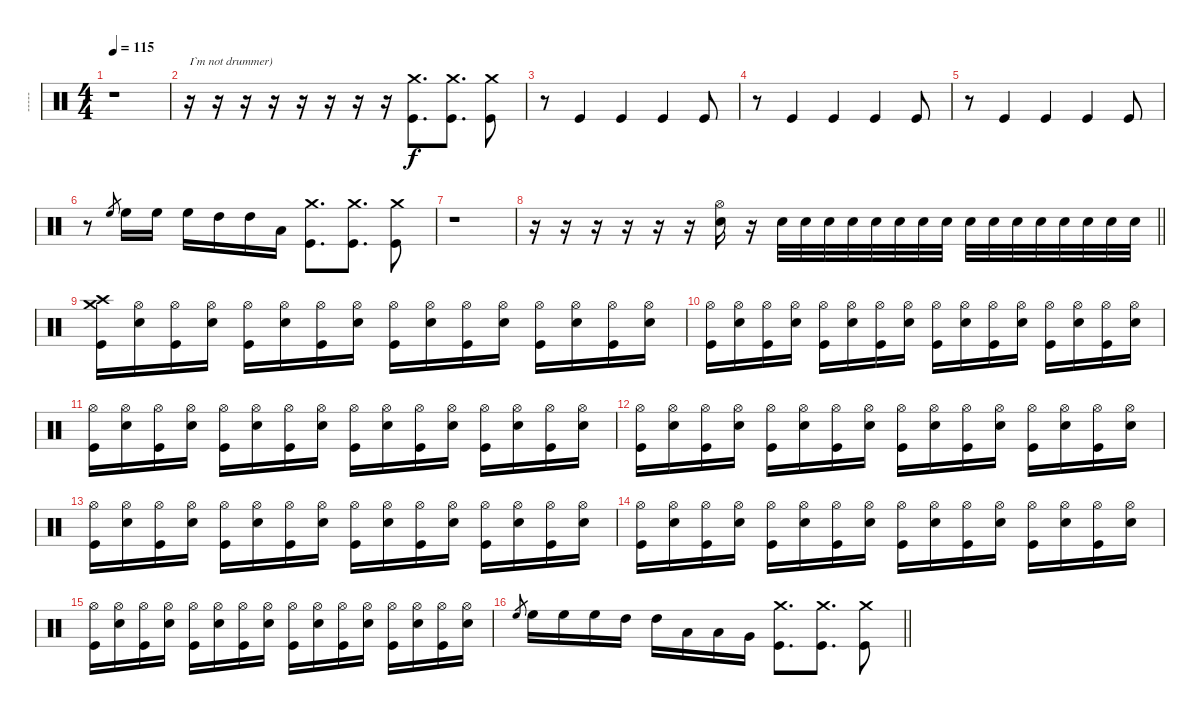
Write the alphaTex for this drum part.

\track ("-----" "-----") {instrument percussion}
\staff {score}
\articulation defaults
\ts (4 4)
\tempo 115
\clef neutral
\ks c
r.1{dy f} |
r.16{txt "I`m not drummer)"} r.16 r.16 r.16 r.16 r.16 r.16 r.16 ("Crash medium (hit)" "Kick (hit)").8{d} ("Crash medium (hit)" "Kick (hit)").8{d} ("Crash medium (hit)" "Kick (hit)").8 |
r.8 "Kick (hit)".4 "Kick (hit)".4 "Kick (hit)".4 "Kick (hit)".8 |
r.8 "Kick (hit)".4 "Kick (hit)".4 "Kick (hit)".4 "Kick (hit)".8 |
r.8 "Kick (hit)".4 "Kick (hit)".4 "Kick (hit)".4 "Kick (hit)".8 |
r.8 "High Floor Tom (hit)".8{gr} "High Floor Tom (hit)".16 "High Floor Tom (hit)".16 "High Floor Tom (hit)".16 "High Tom (hit)".16 "High Tom (hit)".16 "Low Tom (hit)".16 ("Crash medium (hit)" "Kick (hit)").8{d} ("Crash medium (hit)" "Kick (hit)").8{d} ("Crash medium (hit)" "Kick (hit)").8 |
r.1 |
\barLineRight lightlight
r.16 r.16 r.16 r.16 r.16 r.16 ("Hi-Hat (open)" "Electric Snare (hit)").16 r.16 "Electric Snare (hit)".32 "Electric Snare (hit)".32 "Electric Snare (hit)".32 "Electric Snare (hit)".32 "Electric Snare (hit)".32 "Electric Snare (hit)".32 "Electric Snare (hit)".32 "Electric Snare (hit)".32 "Electric Snare (hit)".32 "Electric Snare (hit)".32 "Electric Snare (hit)".32 "Electric Snare (hit)".32 "Electric Snare (hit)".32 "Electric Snare (hit)".32 "Electric Snare (hit)".32 "Electric Snare (hit)".32 |
\section ("" "")
("Crash medium (hit)" "Crash high (hit)" "Kick (hit)").16 ("Hi-Hat (open)" "Electric Snare (hit)").16 ("Hi-Hat (open)" "Kick (hit)").16 ("Hi-Hat (open)" "Electric Snare (hit)").16 ("Hi-Hat (open)" "Kick (hit)").16 ("Hi-Hat (open)" "Electric Snare (hit)").16 ("Hi-Hat (open)" "Kick (hit)").16 ("Hi-Hat (open)" "Electric Snare (hit)").16 ("Hi-Hat (open)" "Kick (hit)").16 ("Hi-Hat (open)" "Electric Snare (hit)").16 ("Hi-Hat (open)" "Kick (hit)").16 ("Hi-Hat (open)" "Electric Snare (hit)").16 ("Hi-Hat (open)" "Kick (hit)").16 ("Hi-Hat (open)" "Electric Snare (hit)").16 ("Hi-Hat (open)" "Kick (hit)").16 ("Hi-Hat (open)" "Electric Snare (hit)").16 |
("Hi-Hat (open)" "Kick (hit)").16 ("Hi-Hat (open)" "Electric Snare (hit)").16 ("Hi-Hat (open)" "Kick (hit)").16 ("Hi-Hat (open)" "Electric Snare (hit)").16 ("Hi-Hat (open)" "Kick (hit)").16 ("Hi-Hat (open)" "Electric Snare (hit)").16 ("Hi-Hat (open)" "Kick (hit)").16 ("Hi-Hat (open)" "Electric Snare (hit)").16 ("Hi-Hat (open)" "Kick (hit)").16 ("Hi-Hat (open)" "Electric Snare (hit)").16 ("Hi-Hat (open)" "Kick (hit)").16 ("Hi-Hat (open)" "Electric Snare (hit)").16 ("Hi-Hat (open)" "Kick (hit)").16 ("Hi-Hat (open)" "Electric Snare (hit)").16 ("Hi-Hat (open)" "Kick (hit)").16 ("Hi-Hat (open)" "Electric Snare (hit)").16 |
("Hi-Hat (open)" "Kick (hit)").16 ("Hi-Hat (open)" "Electric Snare (hit)").16 ("Hi-Hat (open)" "Kick (hit)").16 ("Hi-Hat (open)" "Electric Snare (hit)").16 ("Hi-Hat (open)" "Kick (hit)").16 ("Hi-Hat (open)" "Electric Snare (hit)").16 ("Hi-Hat (open)" "Kick (hit)").16 ("Hi-Hat (open)" "Electric Snare (hit)").16 ("Hi-Hat (open)" "Kick (hit)").16 ("Hi-Hat (open)" "Electric Snare (hit)").16 ("Hi-Hat (open)" "Kick (hit)").16 ("Hi-Hat (open)" "Electric Snare (hit)").16 ("Hi-Hat (open)" "Kick (hit)").16 ("Hi-Hat (open)" "Electric Snare (hit)").16 ("Hi-Hat (open)" "Kick (hit)").16 ("Hi-Hat (open)" "Electric Snare (hit)").16 |
("Hi-Hat (open)" "Kick (hit)").16 ("Hi-Hat (open)" "Electric Snare (hit)").16 ("Hi-Hat (open)" "Kick (hit)").16 ("Hi-Hat (open)" "Electric Snare (hit)").16 ("Hi-Hat (open)" "Kick (hit)").16 ("Hi-Hat (open)" "Electric Snare (hit)").16 ("Hi-Hat (open)" "Kick (hit)").16 ("Hi-Hat (open)" "Electric Snare (hit)").16 ("Hi-Hat (open)" "Kick (hit)").16 ("Hi-Hat (open)" "Electric Snare (hit)").16 ("Hi-Hat (open)" "Kick (hit)").16 ("Hi-Hat (open)" "Electric Snare (hit)").16 ("Hi-Hat (open)" "Kick (hit)").16 ("Hi-Hat (open)" "Electric Snare (hit)").16 ("Hi-Hat (open)" "Kick (hit)").16 ("Hi-Hat (open)" "Electric Snare (hit)").16 |
("Hi-Hat (open)" "Kick (hit)").16 ("Hi-Hat (open)" "Electric Snare (hit)").16 ("Hi-Hat (open)" "Kick (hit)").16 ("Hi-Hat (open)" "Electric Snare (hit)").16 ("Hi-Hat (open)" "Kick (hit)").16 ("Hi-Hat (open)" "Electric Snare (hit)").16 ("Hi-Hat (open)" "Kick (hit)").16 ("Hi-Hat (open)" "Electric Snare (hit)").16 ("Hi-Hat (open)" "Kick (hit)").16 ("Hi-Hat (open)" "Electric Snare (hit)").16 ("Hi-Hat (open)" "Kick (hit)").16 ("Hi-Hat (open)" "Electric Snare (hit)").16 ("Hi-Hat (open)" "Kick (hit)").16 ("Hi-Hat (open)" "Electric Snare (hit)").16 ("Hi-Hat (open)" "Kick (hit)").16 ("Hi-Hat (open)" "Electric Snare (hit)").16 |
("Hi-Hat (open)" "Kick (hit)").16 ("Hi-Hat (open)" "Electric Snare (hit)").16 ("Hi-Hat (open)" "Kick (hit)").16 ("Hi-Hat (open)" "Electric Snare (hit)").16 ("Hi-Hat (open)" "Kick (hit)").16 ("Hi-Hat (open)" "Electric Snare (hit)").16 ("Hi-Hat (open)" "Kick (hit)").16 ("Hi-Hat (open)" "Electric Snare (hit)").16 ("Hi-Hat (open)" "Kick (hit)").16 ("Hi-Hat (open)" "Electric Snare (hit)").16 ("Hi-Hat (open)" "Kick (hit)").16 ("Hi-Hat (open)" "Electric Snare (hit)").16 ("Hi-Hat (open)" "Kick (hit)").16 ("Hi-Hat (open)" "Electric Snare (hit)").16 ("Hi-Hat (open)" "Kick (hit)").16 ("Hi-Hat (open)" "Electric Snare (hit)").16 |
("Hi-Hat (open)" "Kick (hit)").16 ("Hi-Hat (open)" "Electric Snare (hit)").16 ("Hi-Hat (open)" "Kick (hit)").16 ("Hi-Hat (open)" "Electric Snare (hit)").16 ("Hi-Hat (open)" "Kick (hit)").16 ("Hi-Hat (open)" "Electric Snare (hit)").16 ("Hi-Hat (open)" "Kick (hit)").16 ("Hi-Hat (open)" "Electric Snare (hit)").16 ("Hi-Hat (open)" "Kick (hit)").16 ("Hi-Hat (open)" "Electric Snare (hit)").16 ("Hi-Hat (open)" "Kick (hit)").16 ("Hi-Hat (open)" "Electric Snare (hit)").16 ("Hi-Hat (open)" "Kick (hit)").16 ("Hi-Hat (open)" "Electric Snare (hit)").16 ("Hi-Hat (open)" "Kick (hit)").16 ("Hi-Hat (open)" "Electric Snare (hit)").16 |
\barLineRight lightlight "High Floor Tom (hit)".8{gr} "High Floor Tom (hit)".16 "High Floor Tom (hit)".16 "High Floor Tom (hit)".16 "High Tom (hit)".16 "High Tom (hit)".16 "Low Tom (hit)".16 "Low Tom (hit)".16 "Very Low Tom (hit)".16
("Crash medium (hit)" "Kick (hit)").8{d} ("Crash medium (hit)" "Kick (hit)").8{d} ("Crash medium (hit)" "Kick (hit)").8
